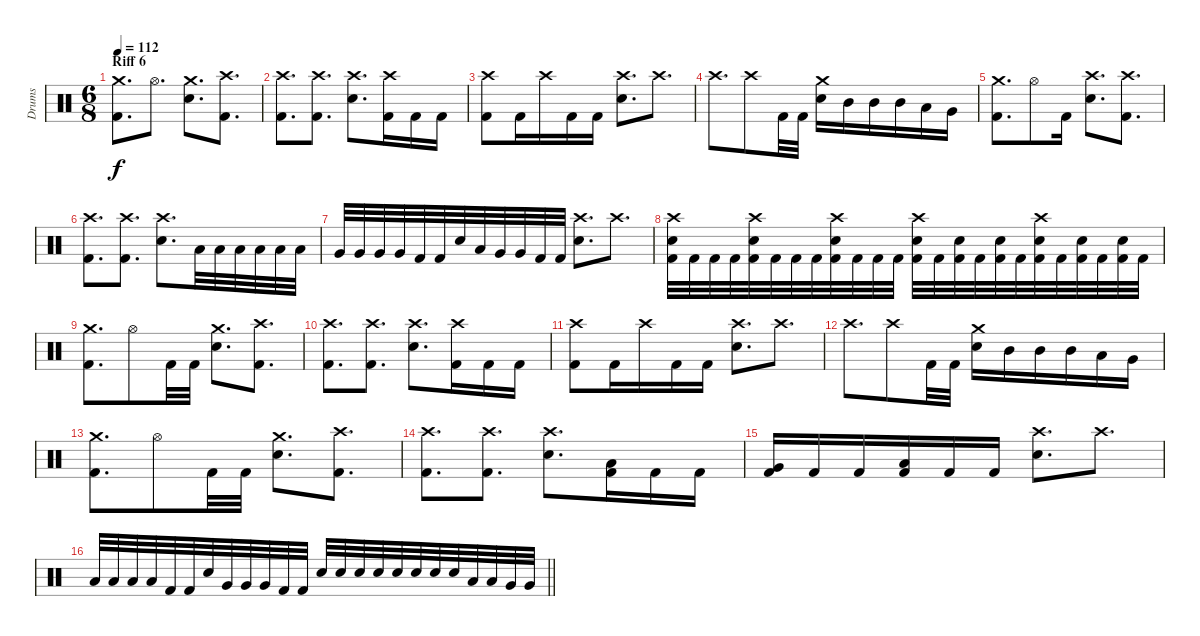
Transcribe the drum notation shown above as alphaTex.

\track ("Drums" "Drums") {instrument percussion}
\staff {score}
\articulation defaults
\ts (6 8)
\section ("" "Riff 6")
\tempo 112
\clef neutral
\ks c
("Crash medium (hit)" "Kick (hit) 2").8{d dy f} "Hi-Hat (open)".8{d} ("Crash medium (hit)" "Electric Snare (hit)").8{d} ("Crash high (hit)" "Kick (hit) 2").8{d} |
("Crash high (hit)" "Kick (hit) 2").8{d} ("Crash high (hit)" "Kick (hit) 2").8{d} ("Crash high (hit)" "Electric Snare (hit)").8{d} ("Crash high (hit)" "Kick (hit) 2").16 "Kick (hit) 2".16 "Kick (hit) 2".16 |
("Crash high (hit)" "Kick (hit) 2").8 "Kick (hit) 2".16 "Crash high (hit)".16 "Kick (hit) 2".16 "Kick (hit) 2".16 ("Electric Snare (hit)" "Crash high (hit)").8{d} "Crash high (hit)".8{d} |
"Crash high (hit)".8{d} "Crash high (hit)".8 "Kick (hit) 2".32 "Kick (hit) 2".32 ("Electric Snare (hit)" "Crash medium (hit)").16 "Mid Tom (hit)".16 "Mid Tom (hit)".16 "Mid Tom (hit)".16 "Low Tom (hit)".16 "Very Low Tom (hit)".16 |
("Crash medium (hit)" "Kick (hit) 2").8{d} "Hi-Hat (open)".8 "Kick (hit) 2".16 ("Electric Snare (hit)" "Crash high (hit)").8{d} ("Kick (hit) 2" "Crash high (hit)").8{d} |
("Crash high (hit)" "Kick (hit) 2").8{d} ("Crash high (hit)" "Kick (hit) 2").8{d} ("Crash high (hit)" "Electric Snare (hit)").8{d} "Low Tom (hit)".32 "Low Tom (hit)".32 "Low Tom (hit)".32 "Low Tom (hit)".32 "Low Tom (hit)".32 "Low Tom (hit)".32 |
"Very Low Tom (hit)".32 "Very Low Tom (hit)".32 "Very Low Tom (hit)".32 "Very Low Tom (hit)".32 "Kick (hit) 2".32 "Kick (hit) 2".32 "Electric Snare (hit)".32 "Low Tom (hit)".32 "Very Low Tom (hit)".32 "Very Low Tom (hit)".32 "Kick (hit) 2".32 "Kick (hit) 2".32 ("Crash high (hit)" "Electric Snare (hit)").8{d} "Crash high (hit)".8{d} |
("Electric Snare (hit)" "Kick (hit) 2" "Crash high (hit)").32 "Kick (hit) 2".32 "Kick (hit) 2".32 "Kick (hit) 2".32 ("Electric Snare (hit)" "Kick (hit) 2" "Crash high (hit)").32 "Kick (hit) 2".32 "Kick (hit) 2".32 "Kick (hit) 2".32 ("Electric Snare (hit)" "Kick (hit) 2" "Crash high (hit)").32 "Kick (hit) 2".32 "Kick (hit) 2".32 "Kick (hit) 2".32 ("Electric Snare (hit)" "Kick (hit) 2" "Crash high (hit)").32 "Kick (hit) 2".32 ("Electric Snare (hit)" "Kick (hit) 2").32 "Kick (hit) 2".32 ("Electric Snare (hit)" "Kick (hit) 2").32 "Kick (hit) 2".32 ("Electric Snare (hit)" "Kick (hit) 2" "Crash high (hit)").32 "Kick (hit) 2".32 ("Electric Snare (hit)" "Kick (hit) 2").32 "Kick (hit) 2".32 ("Electric Snare (hit)" "Kick (hit) 2").32 "Kick (hit) 2".32 |
("Crash medium (hit)" "Kick (hit) 2").8{d} "Hi-Hat (open)".8 "Kick (hit) 2".32 "Kick (hit) 2".32 ("Crash medium (hit)" "Electric Snare (hit)").8{d} ("Crash high (hit)" "Kick (hit) 2").8{d} |
("Crash high (hit)" "Kick (hit) 2").8{d} ("Crash high (hit)" "Kick (hit) 2").8{d} ("Crash high (hit)" "Electric Snare (hit)").8{d} ("Crash high (hit)" "Kick (hit) 2").16 "Kick (hit) 2".16 "Kick (hit) 2".16 |
("Crash high (hit)" "Kick (hit) 2").8 "Kick (hit) 2".16 "Crash high (hit)".16 "Kick (hit) 2".16 "Kick (hit) 2".16 ("Electric Snare (hit)" "Crash high (hit)").8{d} "Crash high (hit)".8{d} |
"Crash high (hit)".8{d} "Crash high (hit)".8 "Kick (hit) 2".32 "Kick (hit) 2".32 ("Electric Snare (hit)" "Crash medium (hit)").16 "Mid Tom (hit)".16 "Mid Tom (hit)".16 "Mid Tom (hit)".16 "Low Tom (hit)".16 "Very Low Tom (hit)".16 |
("Crash medium (hit)" "Kick (hit) 2").8{d} "Hi-Hat (open)".8 "Kick (hit) 2".32 "Kick (hit) 2".32 ("Crash medium (hit)" "Electric Snare (hit)").8{d} ("Crash high (hit)" "Kick (hit) 2").8{d} |
("Crash high (hit)" "Kick (hit) 2").8{d} ("Crash high (hit)" "Kick (hit) 2").8{d} ("Crash high (hit)" "Electric Snare (hit)").8{d} ("Kick (hit) 2" "Low Tom (hit)").16 "Kick (hit) 2".16 "Kick (hit) 2".16 |
("Kick (hit) 2" "Very Low Tom (hit)").16 "Kick (hit) 2".16 "Kick (hit) 2".16 ("Low Floor Tom (hit)" "Kick (hit) 2").16 "Kick (hit) 2".16 "Kick (hit) 2".16 ("Electric Snare (hit)" "Crash high (hit)").8{d} "Crash high (hit)".8{d} |
\barLineRight lightlight "Low Tom (hit)".32 "Low Tom (hit)".32 "Low Tom (hit)".32 "Low Tom (hit)".32 "Kick (hit) 2".32 "Kick (hit) 2".32 "Electric Snare (hit)".32 "Very Low Tom (hit)".32 "Very Low Tom (hit)".32 "Very Low Tom (hit)".32 "Kick (hit) 2".32 "Kick (hit) 2".32 "Electric Snare (hit)".32 "Electric Snare (hit)".32 "Electric Snare (hit)".32 "Electric Snare (hit)".32 "Electric Snare (hit)".32 "Electric Snare (hit)".32 "Electric Snare (hit)".32 "Electric Snare (hit)".32 "Low Tom (hit)".32 "Low Tom (hit)".32 "Very Low Tom (hit)".32 "Very Low Tom (hit)".32
